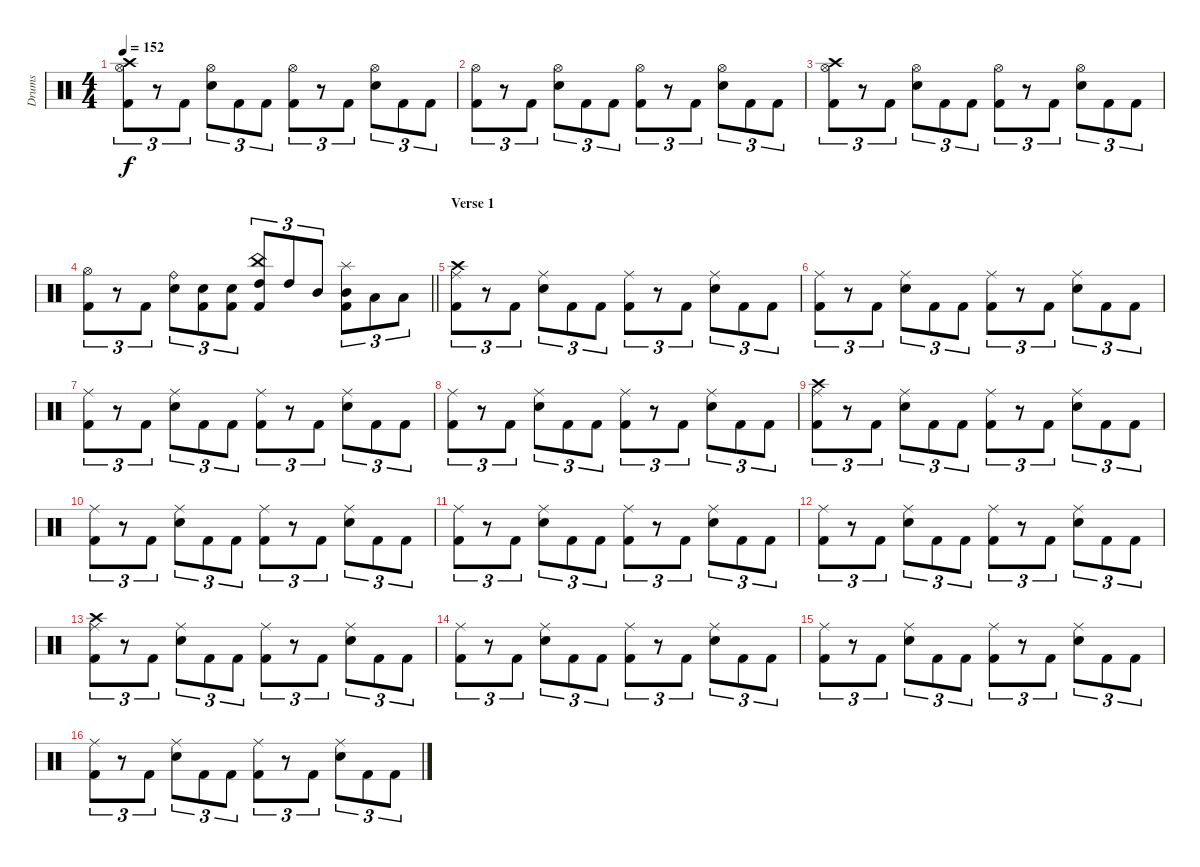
\track ("Drums" "Drums") {instrument percussion}
\staff {score}
\articulation defaults
\ts (4 4)
\tempo 152
\clef neutral
\ks c
("Crash high (hit)" "Hi-Hat (open)" "Kick (hit) 2").8{tu (3 2) dy f} r.8{tu (3 2)} "Kick (hit) 2".8{tu (3 2)} ("Hi-Hat (open)" "Snare (hit) 2").8{tu (3 2)} "Kick (hit) 2".8{tu (3 2)} "Kick (hit) 2".8{tu (3 2)} ("Hi-Hat (open)" "Kick (hit) 2").8{tu (3 2)} r.8{tu (3 2)} "Kick (hit) 2".8{tu (3 2)} ("Hi-Hat (open)" "Snare (hit) 2").8{tu (3 2)} "Kick (hit) 2".8{tu (3 2)} "Kick (hit) 2".8{tu (3 2)} |
("Hi-Hat (open)" "Kick (hit) 2").8{tu (3 2)} r.8{tu (3 2)} "Kick (hit) 2".8{tu (3 2)} ("Hi-Hat (open)" "Snare (hit) 2").8{tu (3 2)} "Kick (hit) 2".8{tu (3 2)} "Kick (hit) 2".8{tu (3 2)} ("Hi-Hat (open)" "Kick (hit) 2").8{tu (3 2)} r.8{tu (3 2)} "Kick (hit) 2".8{tu (3 2)} ("Hi-Hat (open)" "Snare (hit) 2").8{tu (3 2)} "Kick (hit) 2".8{tu (3 2)} "Kick (hit) 2".8{tu (3 2)} |
("Crash high (hit)" "Hi-Hat (open)" "Kick (hit) 2").8{tu (3 2)} r.8{tu (3 2)} "Kick (hit) 2".8{tu (3 2)} ("Hi-Hat (open)" "Snare (hit) 2").8{tu (3 2)} "Kick (hit) 2".8{tu (3 2)} "Kick (hit) 2".8{tu (3 2)} ("Hi-Hat (open)" "Kick (hit) 2").8{tu (3 2)} r.8{tu (3 2)} "Kick (hit) 2".8{tu (3 2)} ("Hi-Hat (open)" "Snare (hit) 2").8{tu (3 2)} "Kick (hit) 2".8{tu (3 2)} "Kick (hit) 2".8{tu (3 2)} |
\barLineRight lightlight
("Hi-Hat (open)" "Kick (hit) 2").8{tu (3 2)} r.8{tu (3 2)} "Kick (hit) 2".8{tu (3 2)} ("Ride (bell)" "Snare (hit) 2").8{tu (3 2)} ("Snare (hit) 2" "Kick (hit) 2").8{tu (3 2)} ("Snare (hit) 2" "Kick (hit) 2").8{tu (3 2)} ("China (hit)" "High Tom (hit)" "Kick (hit) 2").8{tu (3 2)} "High Tom (hit)".8{tu (3 2)} "Mid Tom (hit)".8{tu (3 2)} ("Splash (hit)" "Mid Tom (hit)" "Kick (hit) 2").8{tu (3 2)} "Low Tom (hit)".8{tu (3 2)} "Low Tom (hit)".8{tu (3 2)} |
\section ("" "Verse 1")
("Crash high (hit)" "Ride (middle)" "Kick (hit) 2").8{tu (3 2)} r.8{tu (3 2)} "Kick (hit) 2".8{tu (3 2)} ("Ride (middle)" "Snare (hit) 2").8{tu (3 2)} "Kick (hit) 2".8{tu (3 2)} "Kick (hit) 2".8{tu (3 2)} ("Ride (middle)" "Kick (hit) 2").8{tu (3 2)} r.8{tu (3 2)} "Kick (hit) 2".8{tu (3 2)} ("Ride (middle)" "Snare (hit) 2").8{tu (3 2)} "Kick (hit) 2".8{tu (3 2)} "Kick (hit) 2".8{tu (3 2)} |
("Ride (middle)" "Kick (hit) 2").8{tu (3 2)} r.8{tu (3 2)} "Kick (hit) 2".8{tu (3 2)} ("Ride (middle)" "Snare (hit) 2").8{tu (3 2)} "Kick (hit) 2".8{tu (3 2)} "Kick (hit) 2".8{tu (3 2)} ("Ride (middle)" "Kick (hit) 2").8{tu (3 2)} r.8{tu (3 2)} "Kick (hit) 2".8{tu (3 2)} ("Ride (middle)" "Snare (hit) 2").8{tu (3 2)} "Kick (hit) 2".8{tu (3 2)} "Kick (hit) 2".8{tu (3 2)} |
("Ride (middle)" "Kick (hit) 2").8{tu (3 2)} r.8{tu (3 2)} "Kick (hit) 2".8{tu (3 2)} ("Ride (middle)" "Snare (hit) 2").8{tu (3 2)} "Kick (hit) 2".8{tu (3 2)} "Kick (hit) 2".8{tu (3 2)} ("Ride (middle)" "Kick (hit) 2").8{tu (3 2)} r.8{tu (3 2)} "Kick (hit) 2".8{tu (3 2)} ("Ride (middle)" "Snare (hit) 2").8{tu (3 2)} "Kick (hit) 2".8{tu (3 2)} "Kick (hit) 2".8{tu (3 2)} |
("Ride (middle)" "Kick (hit) 2").8{tu (3 2)} r.8{tu (3 2)} "Kick (hit) 2".8{tu (3 2)} ("Ride (middle)" "Snare (hit) 2").8{tu (3 2)} "Kick (hit) 2".8{tu (3 2)} "Kick (hit) 2".8{tu (3 2)} ("Ride (middle)" "Kick (hit) 2").8{tu (3 2)} r.8{tu (3 2)} "Kick (hit) 2".8{tu (3 2)} ("Ride (middle)" "Snare (hit) 2").8{tu (3 2)} "Kick (hit) 2".8{tu (3 2)} "Kick (hit) 2".8{tu (3 2)} |
("Crash high (hit)" "Ride (middle)" "Kick (hit) 2").8{tu (3 2)} r.8{tu (3 2)} "Kick (hit) 2".8{tu (3 2)} ("Ride (middle)" "Snare (hit) 2").8{tu (3 2)} "Kick (hit) 2".8{tu (3 2)} "Kick (hit) 2".8{tu (3 2)} ("Ride (middle)" "Kick (hit) 2").8{tu (3 2)} r.8{tu (3 2)} "Kick (hit) 2".8{tu (3 2)} ("Ride (middle)" "Snare (hit) 2").8{tu (3 2)} "Kick (hit) 2".8{tu (3 2)} "Kick (hit) 2".8{tu (3 2)} |
("Ride (middle)" "Kick (hit) 2").8{tu (3 2)} r.8{tu (3 2)} "Kick (hit) 2".8{tu (3 2)} ("Ride (middle)" "Snare (hit) 2").8{tu (3 2)} "Kick (hit) 2".8{tu (3 2)} "Kick (hit) 2".8{tu (3 2)} ("Ride (middle)" "Kick (hit) 2").8{tu (3 2)} r.8{tu (3 2)} "Kick (hit) 2".8{tu (3 2)} ("Ride (middle)" "Snare (hit) 2").8{tu (3 2)} "Kick (hit) 2".8{tu (3 2)} "Kick (hit) 2".8{tu (3 2)} |
("Ride (middle)" "Kick (hit) 2").8{tu (3 2)} r.8{tu (3 2)} "Kick (hit) 2".8{tu (3 2)} ("Ride (middle)" "Snare (hit) 2").8{tu (3 2)} "Kick (hit) 2".8{tu (3 2)} "Kick (hit) 2".8{tu (3 2)} ("Ride (middle)" "Kick (hit) 2").8{tu (3 2)} r.8{tu (3 2)} "Kick (hit) 2".8{tu (3 2)} ("Ride (middle)" "Snare (hit) 2").8{tu (3 2)} "Kick (hit) 2".8{tu (3 2)} "Kick (hit) 2".8{tu (3 2)} |
("Ride (middle)" "Kick (hit) 2").8{tu (3 2)} r.8{tu (3 2)} "Kick (hit) 2".8{tu (3 2)} ("Ride (middle)" "Snare (hit) 2").8{tu (3 2)} "Kick (hit) 2".8{tu (3 2)} "Kick (hit) 2".8{tu (3 2)} ("Ride (middle)" "Kick (hit) 2").8{tu (3 2)} r.8{tu (3 2)} "Kick (hit) 2".8{tu (3 2)} ("Ride (middle)" "Snare (hit) 2").8{tu (3 2)} "Kick (hit) 2".8{tu (3 2)} "Kick (hit) 2".8{tu (3 2)} |
("Crash high (hit)" "Ride (middle)" "Kick (hit) 2").8{tu (3 2)} r.8{tu (3 2)} "Kick (hit) 2".8{tu (3 2)} ("Ride (middle)" "Snare (hit) 2").8{tu (3 2)} "Kick (hit) 2".8{tu (3 2)} "Kick (hit) 2".8{tu (3 2)} ("Ride (middle)" "Kick (hit) 2").8{tu (3 2)} r.8{tu (3 2)} "Kick (hit) 2".8{tu (3 2)} ("Ride (middle)" "Snare (hit) 2").8{tu (3 2)} "Kick (hit) 2".8{tu (3 2)} "Kick (hit) 2".8{tu (3 2)} |
("Ride (middle)" "Kick (hit) 2").8{tu (3 2)} r.8{tu (3 2)} "Kick (hit) 2".8{tu (3 2)} ("Ride (middle)" "Snare (hit) 2").8{tu (3 2)} "Kick (hit) 2".8{tu (3 2)} "Kick (hit) 2".8{tu (3 2)} ("Ride (middle)" "Kick (hit) 2").8{tu (3 2)} r.8{tu (3 2)} "Kick (hit) 2".8{tu (3 2)} ("Ride (middle)" "Snare (hit) 2").8{tu (3 2)} "Kick (hit) 2".8{tu (3 2)} "Kick (hit) 2".8{tu (3 2)} |
("Ride (middle)" "Kick (hit) 2").8{tu (3 2)} r.8{tu (3 2)} "Kick (hit) 2".8{tu (3 2)} ("Ride (middle)" "Snare (hit) 2").8{tu (3 2)} "Kick (hit) 2".8{tu (3 2)} "Kick (hit) 2".8{tu (3 2)} ("Ride (middle)" "Kick (hit) 2").8{tu (3 2)} r.8{tu (3 2)} "Kick (hit) 2".8{tu (3 2)} ("Ride (middle)" "Snare (hit) 2").8{tu (3 2)} "Kick (hit) 2".8{tu (3 2)} "Kick (hit) 2".8{tu (3 2)} |
("Ride (middle)" "Kick (hit) 2").8{tu (3 2)} r.8{tu (3 2)} "Kick (hit) 2".8{tu (3 2)} ("Ride (middle)" "Snare (hit) 2").8{tu (3 2)} "Kick (hit) 2".8{tu (3 2)} "Kick (hit) 2".8{tu (3 2)} ("Ride (middle)" "Kick (hit) 2").8{tu (3 2)} r.8{tu (3 2)} "Kick (hit) 2".8{tu (3 2)} ("Ride (middle)" "Snare (hit) 2").8{tu (3 2)} "Kick (hit) 2".8{tu (3 2)} "Kick (hit) 2".8{tu (3 2)}
